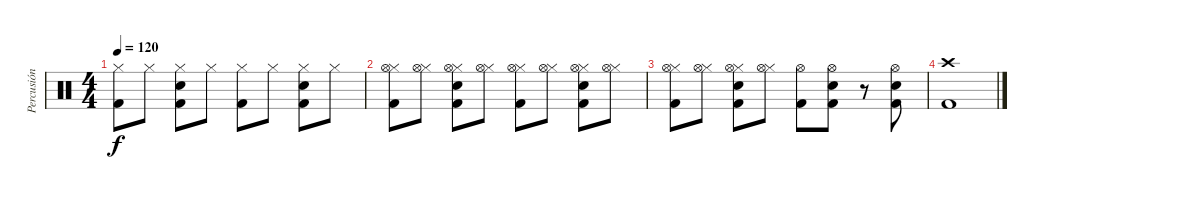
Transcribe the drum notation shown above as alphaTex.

\track ("Percusión" "Percusión") {instrument percussion}
\staff {score}
\articulation defaults
\ts (4 4)
\tempo 120
\clef neutral
\ks c
("Hi-Hat (closed)" "Kick (hit) 2").8{dy f} "Hi-Hat (closed)".8 ("Hi-Hat (closed)" "Kick (hit) 2" "Electric Snare (hit)").8 "Hi-Hat (closed)".8 ("Hi-Hat (closed)" "Kick (hit) 2").8 "Hi-Hat (closed)".8 ("Hi-Hat (closed)" "Kick (hit) 2" "Electric Snare (hit)").8 "Hi-Hat (closed)".8 |
("Hi-Hat (closed)" "Kick (hit) 2" "Hi-Hat (open)").8 ("Hi-Hat (closed)" "Hi-Hat (open)").8 ("Hi-Hat (closed)" "Kick (hit) 2" "Electric Snare (hit)" "Hi-Hat (open)").8 ("Hi-Hat (closed)" "Hi-Hat (open)").8 ("Hi-Hat (closed)" "Kick (hit) 2" "Hi-Hat (open)").8 ("Hi-Hat (closed)" "Hi-Hat (open)").8 ("Hi-Hat (closed)" "Kick (hit) 2" "Electric Snare (hit)" "Hi-Hat (open)").8 ("Hi-Hat (closed)" "Hi-Hat (open)").8 |
("Hi-Hat (closed)" "Kick (hit) 2" "Hi-Hat (open)").8 ("Hi-Hat (closed)" "Hi-Hat (open)").8 ("Hi-Hat (closed)" "Kick (hit) 2" "Electric Snare (hit)" "Hi-Hat (open)").8 ("Hi-Hat (closed)" "Hi-Hat (open)").8 ("Kick (hit) 2" "Hi-Hat (open)").8 ("Kick (hit) 2" "Electric Snare (hit)" "Hi-Hat (open)").8 r.8 ("Kick (hit) 2" "Electric Snare (hit)" "Hi-Hat (open)").8 |
("Kick (hit) 2" "Crash high (hit)").1
